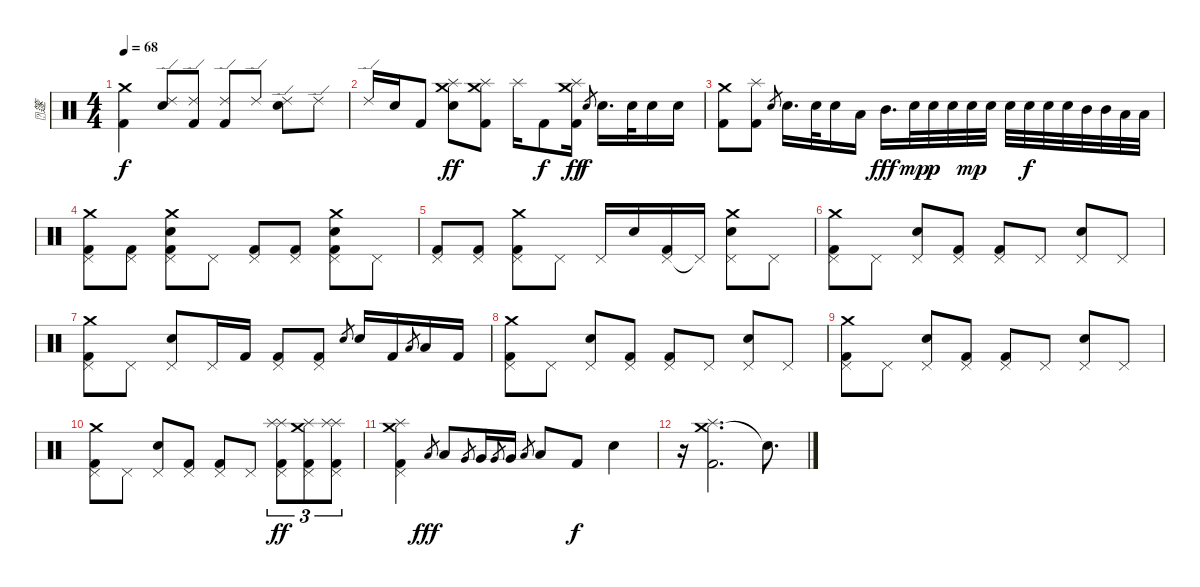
\track ("篴" "篴") {instrument percussion}
\staff {score}
\articulation defaults
\ts (4 4)
\tempo 68
\clef neutral
\ks c
("Crash medium (hit)" "Kick (hit) 2").4{dy f} ("Ride (edge) 2" "Snare (hit) 2").8 ("Ride (edge) 2" "Kick (hit) 2").8 ("Ride (edge) 2" "Kick (hit) 2").8 "Ride (edge) 2".8 ("Ride (edge) 2" "Snare (hit) 2").8 "Ride (edge) 2".8 |
"Ride (edge) 2".16 "Snare (hit) 2".16 "Kick (hit) 2".8 ("Crash medium (hit)" "Splash (hit)" "Snare (hit) 2").8{dy ff} ("Crash medium (hit)" "Splash (hit)" "Kick (hit) 2").8 "Splash (hit)".16 "Kick (hit) 2".8{dy f} ("Crash medium (hit)" "Splash (hit)" "Kick (hit) 2").16{dy ff} "Snare (hit) 2".8{gr dy f} "Snare (hit) 2".16{d} "Snare (hit) 2".32 "Snare (hit) 2".16 "Snare (hit) 2".16 |
("Crash medium (hit)" "Kick (hit) 2").8 ("Splash (hit)" "Kick (hit) 2").8 "Snare (hit) 2".8{gr} "Snare (hit) 2".16{d} "Snare (hit) 2".32 "Snare (hit) 2".16 "Low Tom (hit)".16 "Mid Tom (hit)".16{d dy fff} "Snare (hit) 2".32{dy mp} "Snare (hit) 2".32{dy p} "Snare (hit) 2".32 "Snare (hit) 2".32{dy mp} "Snare (hit) 2".32 "Snare (hit) 2".32 "Snare (hit) 2".32{dy f} "Snare (hit) 2".32 "Snare (hit) 2".32 "Mid Tom (hit)".32 "Mid Tom (hit)".32 "Low Tom (hit)".32 "Low Tom (hit)".32 |
("Crash medium (hit)" "Pedal Hi-Hat (hit)" "Kick (hit) 2").8 ("Pedal Hi-Hat (hit)" "Kick (hit) 2").8 ("Crash medium (hit)" "Pedal Hi-Hat (hit)" "Snare (hit) 2" "Kick (hit) 2").8 "Pedal Hi-Hat (hit)".8 ("Pedal Hi-Hat (hit)" "Kick (hit) 2").8 ("Pedal Hi-Hat (hit)" "Kick (hit) 2").8 ("Crash medium (hit)" "Pedal Hi-Hat (hit)" "Snare (hit) 2" "Kick (hit) 2").8 "Pedal Hi-Hat (hit)".8 |
("Pedal Hi-Hat (hit)" "Kick (hit) 2").8 ("Pedal Hi-Hat (hit)" "Kick (hit) 2").8 ("Crash medium (hit)" "Pedal Hi-Hat (hit)" "Kick (hit) 2").8 "Pedal Hi-Hat (hit)".8 "Pedal Hi-Hat (hit)".16 "Snare (hit) 2".16 ("Pedal Hi-Hat (hit)" "Kick (hit) 2").16 "Pedal Hi-Hat (hit)"{t}.16 ("Crash medium (hit)" "Pedal Hi-Hat (hit)" "Snare (hit) 2").8 "Pedal Hi-Hat (hit)".8 |
("Crash medium (hit)" "Pedal Hi-Hat (hit)" "Kick (hit) 2").8 "Pedal Hi-Hat (hit)".8 ("Pedal Hi-Hat (hit)" "Snare (hit) 2").8 ("Pedal Hi-Hat (hit)" "Kick (hit) 2").8 ("Pedal Hi-Hat (hit)" "Kick (hit) 2").8 "Pedal Hi-Hat (hit)".8 ("Pedal Hi-Hat (hit)" "Snare (hit) 2").8 "Pedal Hi-Hat (hit)".8 |
("Crash medium (hit)" "Pedal Hi-Hat (hit)" "Kick (hit) 2").8 "Pedal Hi-Hat (hit)".8 ("Pedal Hi-Hat (hit)" "Snare (hit) 2").8 "Pedal Hi-Hat (hit)".16 "Kick (hit) 2".16 ("Pedal Hi-Hat (hit)" "Kick (hit) 2").8 ("Pedal Hi-Hat (hit)" "Kick (hit) 2").8 "Snare (hit) 2".8{gr} "Snare (hit) 2".16 "Kick (hit) 2".16 "Low Tom (hit)".8{gr} "Low Tom (hit)".16 "Kick (hit) 2".16 |
("Crash medium (hit)" "Pedal Hi-Hat (hit)" "Kick (hit) 2").8 "Pedal Hi-Hat (hit)".8 ("Pedal Hi-Hat (hit)" "Snare (hit) 2").8 ("Pedal Hi-Hat (hit)" "Kick (hit) 2").8 ("Pedal Hi-Hat (hit)" "Kick (hit) 2").8 "Pedal Hi-Hat (hit)".8 ("Pedal Hi-Hat (hit)" "Snare (hit) 2").8 "Pedal Hi-Hat (hit)".8 |
("Crash medium (hit)" "Pedal Hi-Hat (hit)" "Kick (hit) 2").8 "Pedal Hi-Hat (hit)".8 ("Pedal Hi-Hat (hit)" "Snare (hit) 2").8 ("Pedal Hi-Hat (hit)" "Kick (hit) 2").8 ("Pedal Hi-Hat (hit)" "Kick (hit) 2").8 "Pedal Hi-Hat (hit)".8 ("Pedal Hi-Hat (hit)" "Snare (hit) 2").8 "Pedal Hi-Hat (hit)".8 |
("Crash medium (hit)" "Pedal Hi-Hat (hit)" "Kick (hit) 2").8 "Pedal Hi-Hat (hit)".8 ("Pedal Hi-Hat (hit)" "Snare (hit) 2").8 ("Pedal Hi-Hat (hit)" "Kick (hit) 2").8 ("Pedal Hi-Hat (hit)" "Kick (hit) 2").8 "Pedal Hi-Hat (hit)".8 ("Splash (hit)" "Pedal Hi-Hat (hit)" "Splash (hit)" "Kick (hit) 2").8{tu (3 2) dy ff} ("Crash medium (hit)" "Pedal Hi-Hat (hit)" "Splash (hit)" "Kick (hit) 2").8{tu (3 2)} ("Splash (hit)" "Pedal Hi-Hat (hit)" "Splash (hit)" "Kick (hit) 2").8{tu (3 2)} |
("Crash medium (hit)" "Pedal Hi-Hat (hit)" "Splash (hit)" "Kick (hit) 2").4 "Low Tom (hit)".8{gr dy fff} "Low Tom (hit)".8 "Very Low Tom (hit)".8{gr} "Very Low Tom (hit)".16 "Very Low Tom (hit)".8{gr} "Very Low Tom (hit)".16 "Low Tom (hit)".8{gr} "Low Floor Tom (hit)".8 "Kick (hit) 2".8{dy f} "Snare (hit) 2".4 |
r.16 ("Crash medium (hit)" "Splash (hit)" "Kick (hit) 2").2{d} "Snare (hit)"{t}.8{d}
